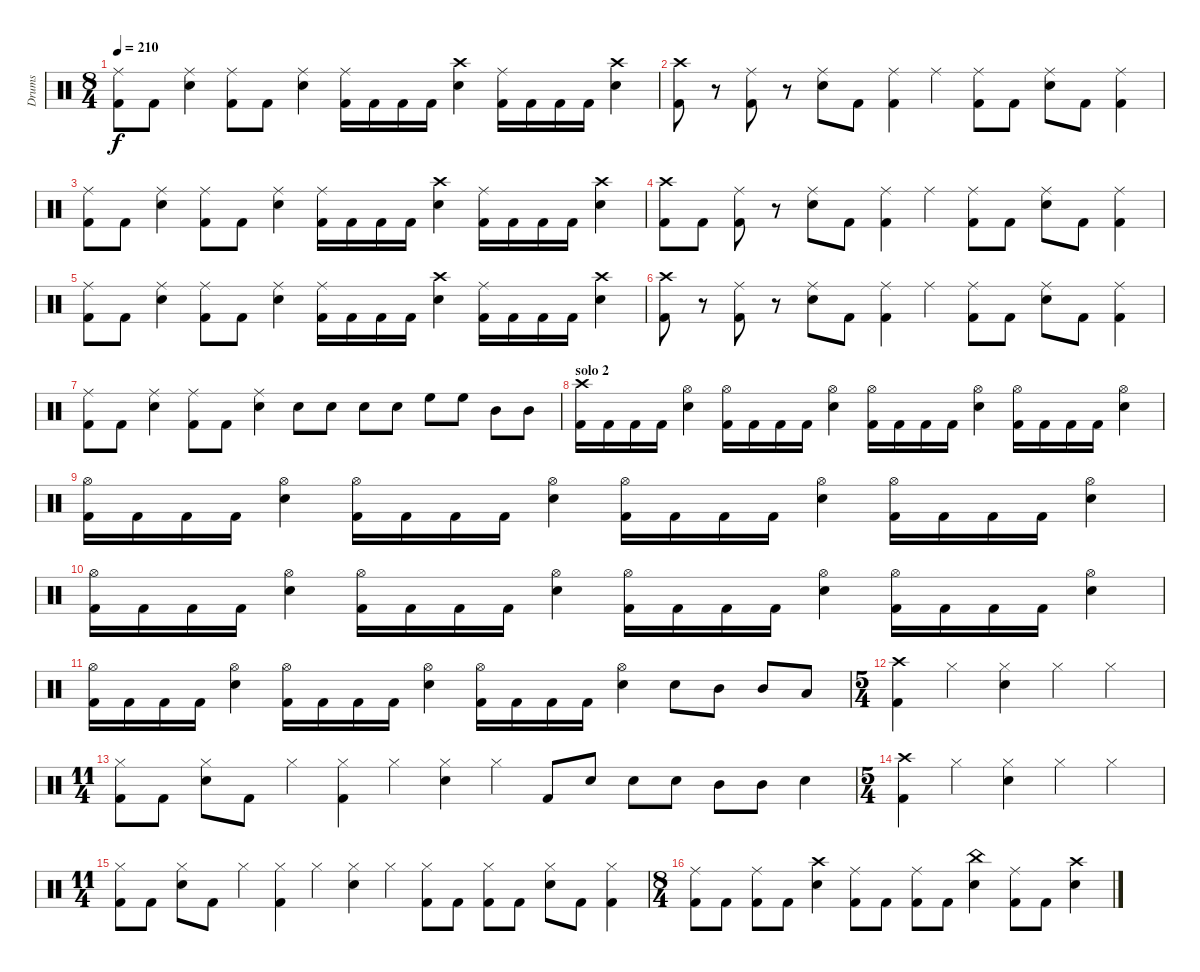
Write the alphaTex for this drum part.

\track ("Drums" "Drums") {instrument percussion}
\staff {score}
\articulation defaults
\ts (8 4)
\tempo 210
\clef neutral
\ks c
("Ride (middle)" "Kick (hit) 2").8{dy f} "Kick (hit) 2".8 ("Ride (middle)" "Snare (hit) 2").4 ("Ride (middle)" "Kick (hit) 2").8 "Kick (hit) 2".8 ("Ride (middle)" "Snare (hit) 2").4 ("Ride (middle)" "Kick (hit) 2").16 "Kick (hit) 2".16 "Kick (hit) 2".16 "Kick (hit) 2".16 ("Crash high (hit)" "Snare (hit) 2").4 ("Ride (middle)" "Kick (hit) 2").16 "Kick (hit) 2".16 "Kick (hit) 2".16 "Kick (hit) 2".16 ("Crash high (hit)" "Snare (hit) 2").4 |
("Crash high (hit)" "Kick (hit) 2").8 r.8 ("Ride (middle)" "Kick (hit) 2").8 r.8 ("Ride (middle)" "Snare (hit) 2").8 "Kick (hit) 2".8 ("Ride (middle)" "Kick (hit) 2").4 "Ride (middle)".4 ("Ride (middle)" "Kick (hit) 2").8 "Kick (hit) 2".8 ("Ride (middle)" "Snare (hit) 2").8 "Kick (hit) 2".8 ("Ride (middle)" "Kick (hit) 2").4 |
("Ride (middle)" "Kick (hit) 2").8 "Kick (hit) 2".8 ("Ride (middle)" "Snare (hit) 2").4 ("Ride (middle)" "Kick (hit) 2").8 "Kick (hit) 2".8 ("Ride (middle)" "Snare (hit) 2").4 ("Ride (middle)" "Kick (hit) 2").16 "Kick (hit) 2".16 "Kick (hit) 2".16 "Kick (hit) 2".16 ("Crash high (hit)" "Snare (hit) 2").4 ("Ride (middle)" "Kick (hit) 2").16 "Kick (hit) 2".16 "Kick (hit) 2".16 "Kick (hit) 2".16 ("Crash high (hit)" "Snare (hit) 2").4 |
("Crash high (hit)" "Kick (hit) 2").8 "Kick (hit) 2".8 ("Ride (middle)" "Kick (hit) 2").8 r.8 ("Ride (middle)" "Snare (hit) 2").8 "Kick (hit) 2".8 ("Ride (middle)" "Kick (hit) 2").4 "Ride (middle)".4 ("Ride (middle)" "Kick (hit) 2").8 "Kick (hit) 2".8 ("Ride (middle)" "Snare (hit) 2").8 "Kick (hit) 2".8 ("Ride (middle)" "Kick (hit) 2").4 |
("Ride (middle)" "Kick (hit) 2").8 "Kick (hit) 2".8 ("Ride (middle)" "Snare (hit) 2").4 ("Ride (middle)" "Kick (hit) 2").8 "Kick (hit) 2".8 ("Ride (middle)" "Snare (hit) 2").4 ("Ride (middle)" "Kick (hit) 2").16 "Kick (hit) 2".16 "Kick (hit) 2".16 "Kick (hit) 2".16 ("Crash high (hit)" "Snare (hit) 2").4 ("Ride (middle)" "Kick (hit) 2").16 "Kick (hit) 2".16 "Kick (hit) 2".16 "Kick (hit) 2".16 ("Crash high (hit)" "Snare (hit) 2").4 |
("Crash high (hit)" "Kick (hit) 2").8 r.8 ("Ride (middle)" "Kick (hit) 2").8 r.8 ("Ride (middle)" "Snare (hit) 2").8 "Kick (hit) 2".8 ("Ride (middle)" "Kick (hit) 2").4 "Ride (middle)".4 ("Ride (middle)" "Kick (hit) 2").8 "Kick (hit) 2".8 ("Ride (middle)" "Snare (hit) 2").8 "Kick (hit) 2".8 ("Ride (middle)" "Kick (hit) 2").4 |
("Ride (middle)" "Kick (hit) 2").8 "Kick (hit) 2".8 ("Ride (middle)" "Snare (hit) 2").4 ("Ride (middle)" "Kick (hit) 2").8 "Kick (hit) 2".8 ("Ride (middle)" "Snare (hit) 2").4 "Snare (hit) 2".8 "Snare (hit) 2".8 "Snare (hit) 2".8 "Snare (hit) 2".8 "High Floor Tom (hit)".8 "High Floor Tom (hit)".8 "Mid Tom (hit)".8 "Mid Tom (hit)".8 |
\section ("" "solo 2")
("Crash high (hit)" "Kick (hit) 2").16 "Kick (hit) 2".16 "Kick (hit) 2".16 "Kick (hit) 2".16 ("Hi-Hat (open)" "Snare (hit) 2").4 ("Hi-Hat (open)" "Kick (hit) 2").16 "Kick (hit) 2".16 "Kick (hit) 2".16 "Kick (hit) 2".16 ("Hi-Hat (open)" "Snare (hit) 2").4 ("Hi-Hat (open)" "Kick (hit) 2").16 "Kick (hit) 2".16 "Kick (hit) 2".16 "Kick (hit) 2".16 ("Hi-Hat (open)" "Snare (hit) 2").4 ("Hi-Hat (open)" "Kick (hit) 2").16 "Kick (hit) 2".16 "Kick (hit) 2".16 "Kick (hit) 2".16 ("Hi-Hat (open)" "Snare (hit) 2").4 |
("Hi-Hat (open)" "Kick (hit) 2").16 "Kick (hit) 2".16 "Kick (hit) 2".16 "Kick (hit) 2".16 ("Hi-Hat (open)" "Snare (hit) 2").4 ("Hi-Hat (open)" "Kick (hit) 2").16 "Kick (hit) 2".16 "Kick (hit) 2".16 "Kick (hit) 2".16 ("Hi-Hat (open)" "Snare (hit) 2").4 ("Hi-Hat (open)" "Kick (hit) 2").16 "Kick (hit) 2".16 "Kick (hit) 2".16 "Kick (hit) 2".16 ("Hi-Hat (open)" "Snare (hit) 2").4 ("Hi-Hat (open)" "Kick (hit) 2").16 "Kick (hit) 2".16 "Kick (hit) 2".16 "Kick (hit) 2".16 ("Hi-Hat (open)" "Snare (hit) 2").4 |
("Hi-Hat (open)" "Kick (hit) 2").16 "Kick (hit) 2".16 "Kick (hit) 2".16 "Kick (hit) 2".16 ("Hi-Hat (open)" "Snare (hit) 2").4 ("Hi-Hat (open)" "Kick (hit) 2").16 "Kick (hit) 2".16 "Kick (hit) 2".16 "Kick (hit) 2".16 ("Hi-Hat (open)" "Snare (hit) 2").4 ("Hi-Hat (open)" "Kick (hit) 2").16 "Kick (hit) 2".16 "Kick (hit) 2".16 "Kick (hit) 2".16 ("Hi-Hat (open)" "Snare (hit) 2").4 ("Hi-Hat (open)" "Kick (hit) 2").16 "Kick (hit) 2".16 "Kick (hit) 2".16 "Kick (hit) 2".16 ("Hi-Hat (open)" "Snare (hit) 2").4 |
("Hi-Hat (open)" "Kick (hit) 2").16 "Kick (hit) 2".16 "Kick (hit) 2".16 "Kick (hit) 2".16 ("Hi-Hat (open)" "Snare (hit) 2").4 ("Hi-Hat (open)" "Kick (hit) 2").16 "Kick (hit) 2".16 "Kick (hit) 2".16 "Kick (hit) 2".16 ("Hi-Hat (open)" "Snare (hit) 2").4 ("Hi-Hat (open)" "Kick (hit) 2").16 "Kick (hit) 2".16 "Kick (hit) 2".16 "Kick (hit) 2".16 ("Hi-Hat (open)" "Snare (hit) 2").4 "Snare (hit) 2".8 "Mid Tom (hit)".8 "Mid Tom (hit)".8 "Low Tom (hit)".8 |
\ts (5 4)
("Crash high (hit)" "Kick (hit) 2").4 "Hi-Hat (closed)".4 ("Hi-Hat (closed)" "Snare (hit) 2").4 "Hi-Hat (closed)".4 "Hi-Hat (closed)".4 |
\ts (11 4)
("Hi-Hat (closed)" "Kick (hit) 2").8 "Kick (hit) 2".8 ("Hi-Hat (closed)" "Snare (hit) 2").8 "Kick (hit) 2".8 "Hi-Hat (closed)".4 ("Hi-Hat (closed)" "Kick (hit) 2").4 "Hi-Hat (closed)".4 ("Hi-Hat (closed)" "Snare (hit) 2").4 "Hi-Hat (closed)".4 "Kick (hit) 2".8 "Snare (hit) 2".8 "Snare (hit) 2".8 "Snare (hit) 2".8 "Mid Tom (hit)".8 "Mid Tom (hit)".8 "Snare (hit) 2".4 |
\ts (5 4)
("Crash high (hit)" "Kick (hit) 2").4 "Hi-Hat (closed)".4 ("Hi-Hat (closed)" "Snare (hit) 2").4 "Hi-Hat (closed)".4 "Hi-Hat (closed)".4 |
\ts (11 4)
("Hi-Hat (closed)" "Kick (hit) 2").8 "Kick (hit) 2".8 ("Hi-Hat (closed)" "Snare (hit) 2").8 "Kick (hit) 2".8 "Hi-Hat (closed)".4 ("Hi-Hat (closed)" "Kick (hit) 2").4 "Hi-Hat (closed)".4 ("Hi-Hat (closed)" "Snare (hit) 2").4 "Hi-Hat (closed)".4 ("Hi-Hat (closed)" "Kick (hit) 2").8 "Kick (hit) 2".8 ("Hi-Hat (closed)" "Kick (hit) 2").8 "Kick (hit) 2".8 ("Hi-Hat (closed)" "Snare (hit) 2").8 "Kick (hit) 2".8 ("Hi-Hat (closed)" "Kick (hit) 2").4 |
\ts (8 4)
("Ride (middle)" "Kick (hit) 2").8 "Kick (hit) 2".8 ("Ride (middle)" "Kick (hit) 2").8 "Kick (hit) 2".8 ("Crash high (hit)" "Snare (hit) 2").4 ("Ride (middle)" "Kick (hit) 2").8 "Kick (hit) 2".8 ("Ride (middle)" "Kick (hit) 2").8 "Kick (hit) 2".8 ("China (hit)" "Snare (hit) 2").4 ("Ride (middle)" "Kick (hit) 2").8 "Kick (hit) 2".8 ("Crash high (hit)" "Snare (hit) 2").4
